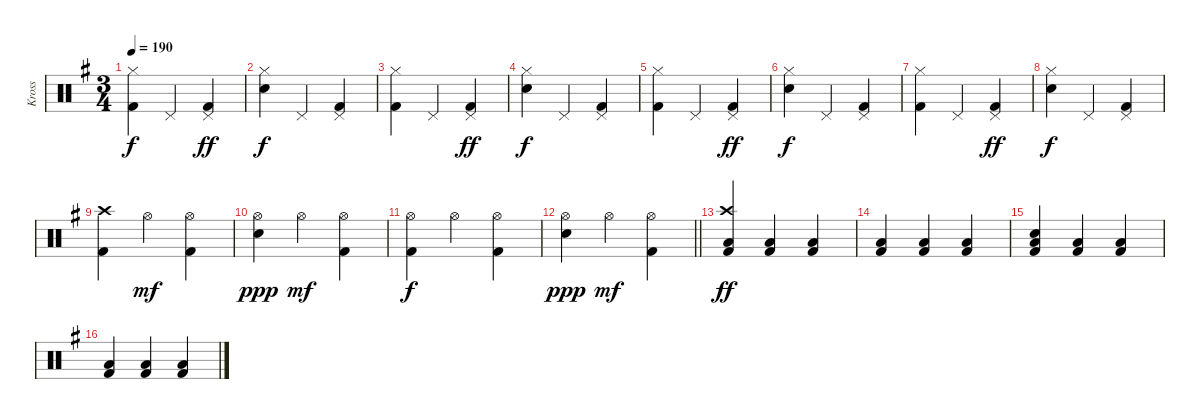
\track ("Kross" "Kross") {instrument percussion}
\staff {score}
\articulation defaults
\ts (3 4)
\tempo 190
\clef neutral
\ks g
("Hi-Hat (closed)" "Kick (hit) 2").4{dy f} "Pedal Hi-Hat (hit)".4 ("Pedal Hi-Hat (hit)" "Kick (hit) 2").4{dy ff} |
("Hi-Hat (closed)" "Snare (hit) 2").4{dy f} "Pedal Hi-Hat (hit)".4 ("Pedal Hi-Hat (hit)" "Kick (hit) 2").4 |
("Hi-Hat (closed)" "Kick (hit) 2").4 "Pedal Hi-Hat (hit)".4 ("Pedal Hi-Hat (hit)" "Kick (hit) 2").4{dy ff} |
("Hi-Hat (closed)" "Snare (hit) 2").4{dy f} "Pedal Hi-Hat (hit)".4 ("Pedal Hi-Hat (hit)" "Kick (hit) 2").4 |
("Hi-Hat (closed)" "Kick (hit) 2").4 "Pedal Hi-Hat (hit)".4 ("Pedal Hi-Hat (hit)" "Kick (hit) 2").4{dy ff} |
("Hi-Hat (closed)" "Snare (hit) 2").4{dy f} "Pedal Hi-Hat (hit)".4 ("Pedal Hi-Hat (hit)" "Kick (hit) 2").4 |
("Hi-Hat (closed)" "Kick (hit) 2").4 "Pedal Hi-Hat (hit)".4 ("Pedal Hi-Hat (hit)" "Kick (hit) 2").4{dy ff} |
("Hi-Hat (closed)" "Snare (hit) 2").4{dy f} "Pedal Hi-Hat (hit)".4 ("Pedal Hi-Hat (hit)" "Kick (hit) 2").4 |
("Crash high (hit)" "Kick (hit) 2").4 "Hi-Hat (open)".4{dy mf} ("Hi-Hat (open)" "Kick (hit) 2").4 |
("Hi-Hat (open)" "Snare (hit) 2").4{dy ppp} "Hi-Hat (open)".4{dy mf} ("Hi-Hat (open)" "Kick (hit) 2").4 |
("Hi-Hat (open)" "Kick (hit) 2").4{dy f} "Hi-Hat (open)".4 ("Hi-Hat (open)" "Kick (hit) 2").4 |
\barLineRight lightlight
("Hi-Hat (open)" "Snare (hit) 2").4{dy ppp} "Hi-Hat (open)".4{dy mf} ("Hi-Hat (open)" "Kick (hit) 2").4 |
("Crash high (hit)" "Low Floor Tom (hit)" "Kick (hit) 2").4{dy ff} ("Low Floor Tom (hit)" "Kick (hit) 2").4 ("Low Floor Tom (hit)" "Kick (hit) 2").4 |
("Low Floor Tom (hit)" "Kick (hit) 2").4 ("Low Floor Tom (hit)" "Kick (hit) 2").4 ("Low Floor Tom (hit)" "Kick (hit) 2").4 |
("Snare (hit) 2" "Low Floor Tom (hit)" "Kick (hit) 2").4 ("Low Floor Tom (hit)" "Kick (hit) 2").4 ("Low Floor Tom (hit)" "Kick (hit) 2").4 |
("Low Floor Tom (hit)" "Kick (hit) 2").4 ("Low Floor Tom (hit)" "Kick (hit) 2").4 ("Low Floor Tom (hit)" "Kick (hit) 2").4
